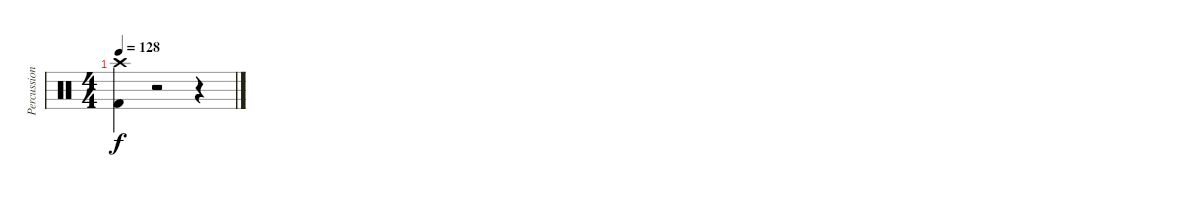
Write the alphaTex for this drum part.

\track ("Percussions" "Percussion") {instrument percussion}
\staff {score}
\articulation defaults
\ts (4 4)
\tempo 128
\clef neutral
\ks c
("Crash high (hit)" "Kick (hit) 2").4{dy f} r.2 r.4
